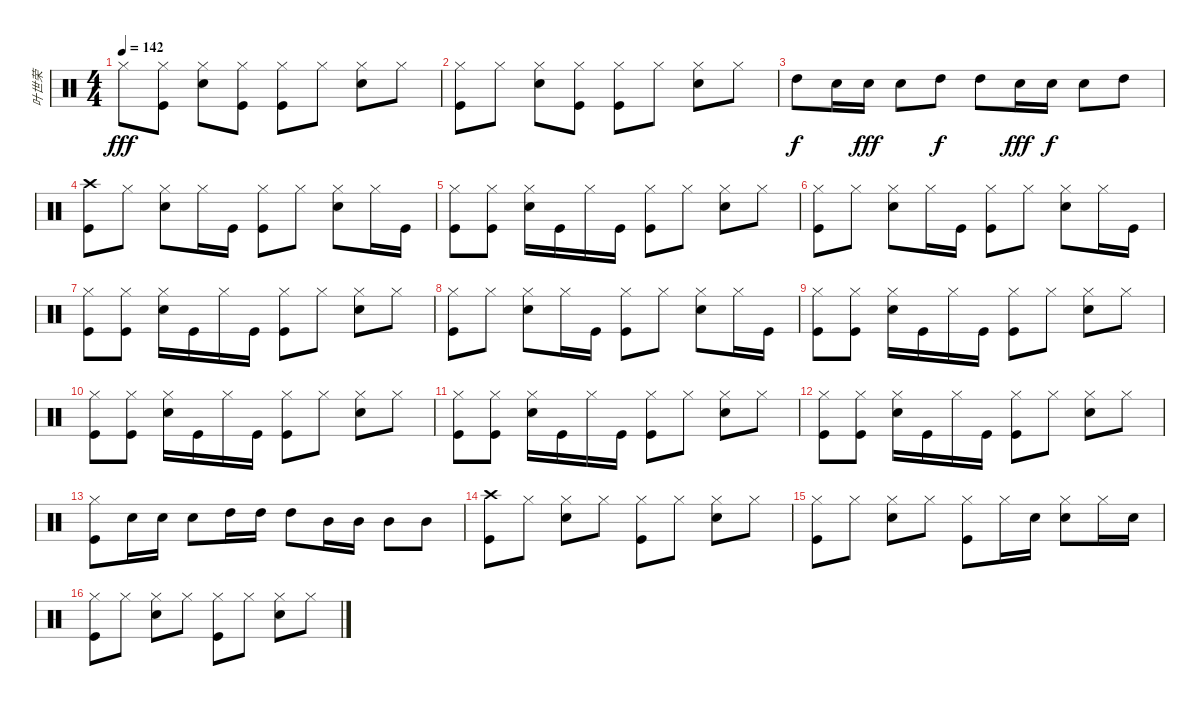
\track ("叶世荣" "叶世荣") {instrument percussion}
\staff {score}
\articulation defaults
\ts (4 4)
\tempo 142
\clef neutral
\ks c "Hi-Hat (closed)".8{dy fff}
("Hi-Hat (closed)" "Kick (hit)").8 ("Hi-Hat (closed)" "Snare (hit) 2").8 ("Hi-Hat (closed)" "Kick (hit)").8 ("Hi-Hat (closed)" "Kick (hit)").8 "Hi-Hat (closed)".8 ("Hi-Hat (closed)" "Snare (hit) 2").8 "Hi-Hat (closed)".8 |
("Hi-Hat (closed)" "Kick (hit)").8 "Hi-Hat (closed)".8 ("Hi-Hat (closed)" "Snare (hit) 2").8 ("Hi-Hat (closed)" "Kick (hit)").8 ("Hi-Hat (closed)" "Kick (hit)").8 "Hi-Hat (closed)".8 ("Hi-Hat (closed)" "Snare (hit) 2").8 "Hi-Hat (closed)".8 |
"High Tom (hit)".8{dy f} "Snare (hit) 2".16 "Snare (hit) 2".16{dy fff} "Snare (hit) 2".8 "High Tom (hit)".8{dy f} "High Tom (hit)".8 "Snare (hit) 2".16{dy fff} "Snare (hit) 2".16{dy f} "Snare (hit) 2".8 "High Tom (hit)".8 |
("Crash high (hit)" "Kick (hit)").8 "Hi-Hat (closed)".8 ("Hi-Hat (closed)" "Snare (hit) 2").8 "Hi-Hat (closed)".16 "Kick (hit)".16 ("Hi-Hat (closed)" "Kick (hit)").8 "Hi-Hat (closed)".8 ("Hi-Hat (closed)" "Snare (hit) 2").8 "Hi-Hat (closed)".16 "Kick (hit)".16 |
("Hi-Hat (closed)" "Kick (hit)").8 ("Hi-Hat (closed)" "Kick (hit)").8 ("Hi-Hat (closed)" "Snare (hit) 2").16 "Kick (hit)".16 "Hi-Hat (closed)".16 "Kick (hit)".16 ("Hi-Hat (closed)" "Kick (hit)").8 "Hi-Hat (closed)".8 ("Hi-Hat (closed)" "Snare (hit) 2").8 "Hi-Hat (closed)".8 |
("Hi-Hat (closed)" "Kick (hit)").8 "Hi-Hat (closed)".8 ("Hi-Hat (closed)" "Snare (hit) 2").8 "Hi-Hat (closed)".16 "Kick (hit)".16 ("Hi-Hat (closed)" "Kick (hit)").8 "Hi-Hat (closed)".8 ("Hi-Hat (closed)" "Snare (hit) 2").8 "Hi-Hat (closed)".16 "Kick (hit)".16 |
("Hi-Hat (closed)" "Kick (hit)").8 ("Hi-Hat (closed)" "Kick (hit)").8 ("Hi-Hat (closed)" "Snare (hit) 2").16 "Kick (hit)".16 "Hi-Hat (closed)".16 "Kick (hit)".16 ("Hi-Hat (closed)" "Kick (hit)").8 "Hi-Hat (closed)".8 ("Hi-Hat (closed)" "Snare (hit) 2").8 "Hi-Hat (closed)".8 |
("Hi-Hat (closed)" "Kick (hit)").8 "Hi-Hat (closed)".8 ("Hi-Hat (closed)" "Snare (hit) 2").8 "Hi-Hat (closed)".16 "Kick (hit)".16 ("Hi-Hat (closed)" "Kick (hit)").8 "Hi-Hat (closed)".8 ("Hi-Hat (closed)" "Snare (hit) 2").8 "Hi-Hat (closed)".16 "Kick (hit)".16 |
("Hi-Hat (closed)" "Kick (hit)").8 ("Hi-Hat (closed)" "Kick (hit)").8 ("Hi-Hat (closed)" "Snare (hit) 2").16 "Kick (hit)".16 "Hi-Hat (closed)".16 "Kick (hit)".16 ("Hi-Hat (closed)" "Kick (hit)").8 "Hi-Hat (closed)".8 ("Hi-Hat (closed)" "Snare (hit) 2").8 "Hi-Hat (closed)".8 |
("Hi-Hat (closed)" "Kick (hit)").8 ("Hi-Hat (closed)" "Kick (hit)").8 ("Hi-Hat (closed)" "Snare (hit) 2").16 "Kick (hit)".16 "Hi-Hat (closed)".16 "Kick (hit)".16 ("Hi-Hat (closed)" "Kick (hit)").8 "Hi-Hat (closed)".8 ("Hi-Hat (closed)" "Snare (hit) 2").8 "Hi-Hat (closed)".8 |
("Hi-Hat (closed)" "Kick (hit)").8 ("Hi-Hat (closed)" "Kick (hit)").8 ("Hi-Hat (closed)" "Snare (hit) 2").16 "Kick (hit)".16 "Hi-Hat (closed)".16 "Kick (hit)".16 ("Hi-Hat (closed)" "Kick (hit)").8 "Hi-Hat (closed)".8 ("Hi-Hat (closed)" "Snare (hit) 2").8 "Hi-Hat (closed)".8 |
("Hi-Hat (closed)" "Kick (hit)").8 ("Hi-Hat (closed)" "Kick (hit)").8 ("Hi-Hat (closed)" "Snare (hit) 2").16 "Kick (hit)".16 "Hi-Hat (closed)".16 "Kick (hit)".16 ("Hi-Hat (closed)" "Kick (hit)").8 "Hi-Hat (closed)".8 ("Hi-Hat (closed)" "Snare (hit) 2").8 "Hi-Hat (closed)".8 |
("Hi-Hat (closed)" "Kick (hit)").8 "Snare (hit) 2".16 "Snare (hit) 2".16 "Snare (hit) 2".8 "High Tom (hit)".16 "High Tom (hit)".16 "High Tom (hit)".8 "Mid Tom (hit)".16 "Mid Tom (hit)".16 "Mid Tom (hit)".8 "Mid Tom (hit)".8 |
("Crash high (hit)" "Kick (hit)").8 "Hi-Hat (closed)".8 ("Hi-Hat (closed)" "Snare (hit) 2").8 "Hi-Hat (closed)".8 ("Hi-Hat (closed)" "Kick (hit)").8 "Hi-Hat (closed)".8 ("Hi-Hat (closed)" "Snare (hit) 2").8 "Hi-Hat (closed)".8 |
("Hi-Hat (closed)" "Kick (hit)").8 "Hi-Hat (closed)".8 ("Hi-Hat (closed)" "Snare (hit) 2").8 "Hi-Hat (closed)".8 ("Hi-Hat (closed)" "Kick (hit)").8 "Hi-Hat (closed)".16 "Snare (hit) 2".16 ("Hi-Hat (closed)" "Snare (hit) 2").8 "Hi-Hat (closed)".16 "Snare (hit) 2".16 |
("Hi-Hat (closed)" "Kick (hit)").8 "Hi-Hat (closed)".8 ("Hi-Hat (closed)" "Snare (hit) 2").8 "Hi-Hat (closed)".8 ("Hi-Hat (closed)" "Kick (hit)").8 "Hi-Hat (closed)".8 ("Hi-Hat (closed)" "Snare (hit) 2").8 "Hi-Hat (closed)".8
